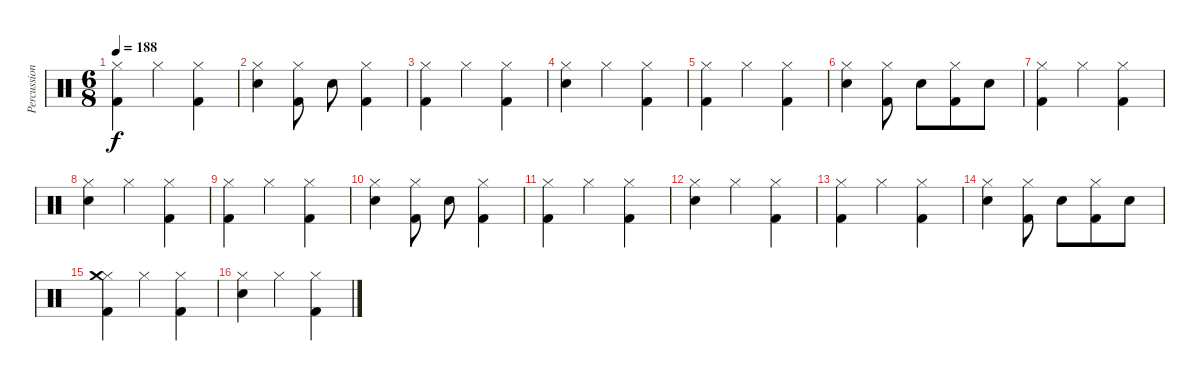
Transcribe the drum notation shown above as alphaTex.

\track ("Percussion" "Percussion") {instrument percussion}
\staff {score}
\articulation defaults
\ts (6 8)
\tempo 188
\clef neutral
\ks c
("Hi-Hat (closed)" "Kick (hit) 2").4{dy f} "Hi-Hat (closed)".4 ("Hi-Hat (closed)" "Kick (hit) 2").4 |
("Hi-Hat (closed)" "Snare (hit) 2").4 ("Hi-Hat (closed)" "Kick (hit) 2").8 "Electric Snare (hit)".8 ("Hi-Hat (closed)" "Kick (hit) 2").4 |
("Hi-Hat (closed)" "Kick (hit) 2").4 "Hi-Hat (closed)".4 ("Hi-Hat (closed)" "Kick (hit) 2").4 |
("Hi-Hat (closed)" "Snare (hit) 2").4 "Hi-Hat (closed)".4 ("Hi-Hat (closed)" "Kick (hit) 2").4 |
("Hi-Hat (closed)" "Kick (hit) 2").4 "Hi-Hat (closed)".4 ("Hi-Hat (closed)" "Kick (hit) 2").4 |
("Hi-Hat (closed)" "Snare (hit) 2").4 ("Hi-Hat (closed)" "Kick (hit) 2").8 "Electric Snare (hit)".8 ("Hi-Hat (closed)" "Kick (hit) 2").8 "Electric Snare (hit)".8 |
("Hi-Hat (closed)" "Kick (hit) 2").4 "Hi-Hat (closed)".4 ("Hi-Hat (closed)" "Kick (hit) 2").4 |
("Hi-Hat (closed)" "Snare (hit) 2").4 "Hi-Hat (closed)".4 ("Hi-Hat (closed)" "Kick (hit) 2").4 |
("Hi-Hat (closed)" "Kick (hit) 2").4 "Hi-Hat (closed)".4 ("Hi-Hat (closed)" "Kick (hit) 2").4 |
("Hi-Hat (closed)" "Snare (hit) 2").4 ("Hi-Hat (closed)" "Kick (hit) 2").8 "Electric Snare (hit)".8 ("Hi-Hat (closed)" "Kick (hit) 2").4 |
("Hi-Hat (closed)" "Kick (hit) 2").4 "Hi-Hat (closed)".4 ("Hi-Hat (closed)" "Kick (hit) 2").4 |
("Hi-Hat (closed)" "Snare (hit) 2").4 "Hi-Hat (closed)".4 ("Hi-Hat (closed)" "Kick (hit) 2").4 |
("Hi-Hat (closed)" "Kick (hit) 2").4 "Hi-Hat (closed)".4 ("Hi-Hat (closed)" "Kick (hit) 2").4 |
("Hi-Hat (closed)" "Snare (hit) 2").4 ("Hi-Hat (closed)" "Kick (hit) 2").8 "Electric Snare (hit)".8 ("Hi-Hat (closed)" "Kick (hit) 2").8 "Electric Snare (hit)".8 |
("Hi-Hat (closed)" "Crash medium (hit)" "Kick (hit) 2").4 "Hi-Hat (closed)".4 ("Hi-Hat (closed)" "Kick (hit) 2").4 |
("Hi-Hat (closed)" "Snare (hit) 2").4 "Hi-Hat (closed)".4 ("Hi-Hat (closed)" "Kick (hit) 2").4
